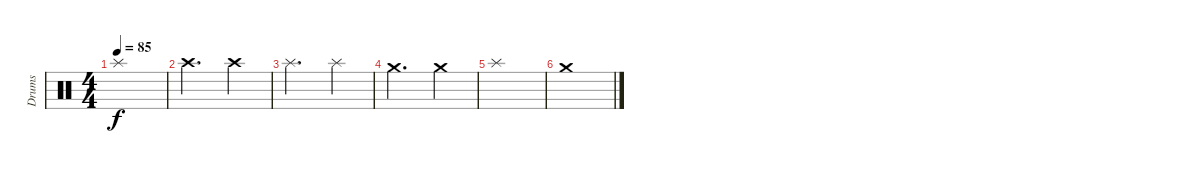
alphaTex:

\track ("Drums" "Drums") {instrument percussion}
\staff {score}
\articulation defaults
\ts (4 4)
\tempo 85
\clef neutral
\ks c "Splash (hit)".1{dy f}
|
"Crash high (hit)".2{d} "Crash high (hit)".4 |
"Splash (hit)".2{d} "Splash (hit)".4 |
"Crash medium (hit)".2{d} "Crash medium (hit)".4 |
"Splash (hit)".1 |
"Crash medium (hit)".1
